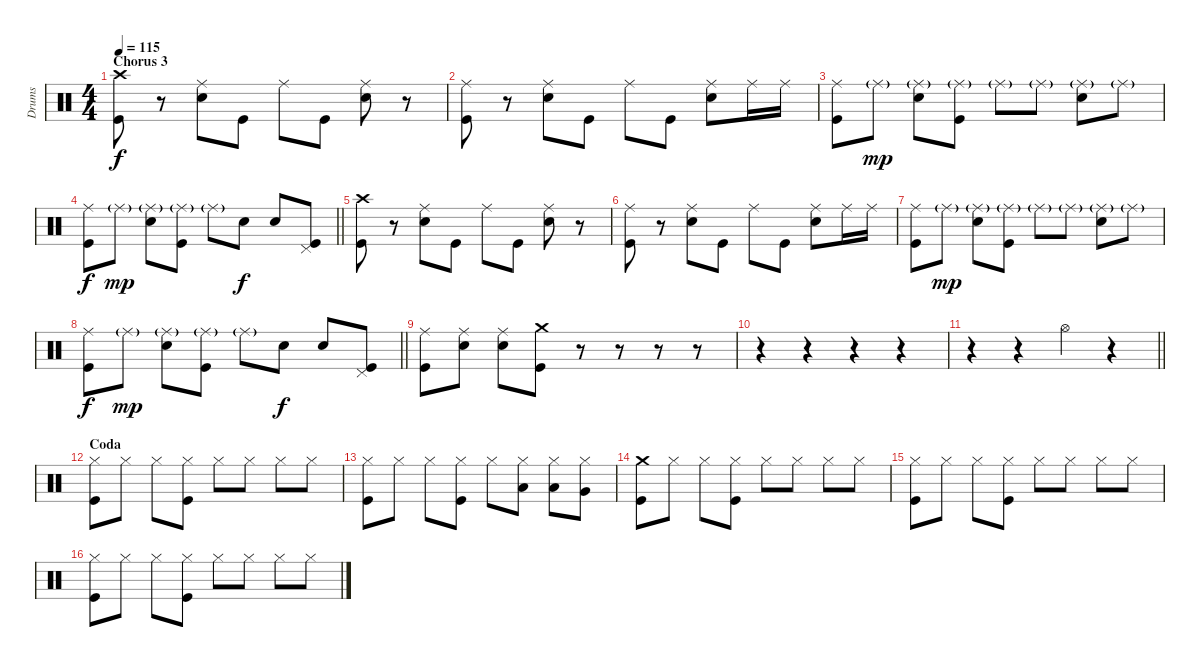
\track ("Drums" "Drums") {instrument percussion}
\staff {score}
\articulation defaults
\ts (4 4)
\section ("" "Chorus 3")
\tempo 115
\clef neutral
\ks c
("Crash high (hit)" "Kick (hit)").8{dy f} r.8 ("Ride (middle)" "Snare (hit) 2").8 "Kick (hit)".8 "Ride (middle)".8 "Kick (hit)".8 ("Ride (middle)" "Snare (hit) 2").8 r.8 |
("Ride (middle)" "Kick (hit)").8 r.8 ("Ride (middle)" "Snare (hit) 2").8 "Kick (hit)".8 "Ride (middle)".8 "Kick (hit)".8 ("Ride (middle)" "Snare (hit) 2").8 "Ride (middle)".16 "Ride (middle)".16 |
("Ride (middle)" "Kick (hit)").8 "Ride (middle)"{g}.8{dy mp} ("Ride (middle)"{g} "Snare (hit) 2").8 ("Ride (middle)"{g} "Kick (hit)").8 "Ride (middle)"{g}.8 "Ride (middle)"{g}.8 ("Ride (middle)"{g} "Snare (hit) 2").8 "Ride (middle)"{g}.8 |
\barLineRight lightlight
("Ride (middle)" "Kick (hit)").8{dy f} "Ride (middle)"{g}.8{dy mp} ("Ride (middle)"{g} "Snare (hit) 2").8 ("Ride (middle)"{g} "Kick (hit)").8 "Ride (middle)"{g}.8 "Snare (hit) 2".8{dy f} "Snare (hit) 2".8 ("Pedal Hi-Hat (hit)" "Kick (hit)").8 |
("Crash high (hit)" "Kick (hit)").8 r.8 ("Ride (middle)" "Snare (hit) 2").8 "Kick (hit)".8 "Ride (middle)".8 "Kick (hit)".8 ("Ride (middle)" "Snare (hit) 2").8 r.8 |
("Ride (middle)" "Kick (hit)").8 r.8 ("Ride (middle)" "Snare (hit) 2").8 "Kick (hit)".8 "Ride (middle)".8 "Kick (hit)".8 ("Ride (middle)" "Snare (hit) 2").8 "Ride (middle)".16 "Ride (middle)".16 |
("Ride (middle)" "Kick (hit)").8 "Ride (middle)"{g}.8{dy mp} ("Ride (middle)"{g} "Snare (hit) 2").8 ("Ride (middle)"{g} "Kick (hit)").8 "Ride (middle)"{g}.8 "Ride (middle)"{g}.8 ("Ride (middle)"{g} "Snare (hit) 2").8 "Ride (middle)"{g}.8 |
\barLineRight lightlight
("Ride (middle)" "Kick (hit)").8{dy f} "Ride (middle)"{g}.8{dy mp} ("Ride (middle)"{g} "Snare (hit) 2").8 ("Ride (middle)"{g} "Kick (hit)").8 "Ride (middle)"{g}.8 "Snare (hit) 2".8{dy f} "Snare (hit) 2".8 ("Pedal Hi-Hat (hit)" "Kick (hit)").8 |
("Ride (middle)" "Kick (hit)").8 ("Ride (middle)" "Snare (hit) 2").8 ("Ride (middle)" "Snare (hit) 2").8 ("Crash medium (hit)" "Kick (hit)").8 r.8 r.8 r.8 r.8 |
r.4 r.4 r.4 r.4 |
\barLineRight lightlight
r.4 r.4 "Hi-Hat (open)".4 r.4 |
\section ("" "Coda")
("Hi-Hat (closed)" "Kick (hit)").8 "Hi-Hat (closed)".8 "Hi-Hat (closed)".8 ("Hi-Hat (closed)" "Kick (hit)").8 "Hi-Hat (closed)".8 "Hi-Hat (closed)".8 "Hi-Hat (closed)".8 "Hi-Hat (closed)".8 |
("Hi-Hat (closed)" "Kick (hit)").8 "Hi-Hat (closed)".8 "Hi-Hat (closed)".8 ("Hi-Hat (closed)" "Kick (hit)").8 "Hi-Hat (closed)".8 ("Hi-Hat (closed)" "Low Tom (hit)").8 ("Hi-Hat (closed)" "Low Tom (hit)").8 ("Hi-Hat (closed)" "Very Low Tom (hit)").8 |
("Crash medium (hit)" "Kick (hit)").8 "Hi-Hat (closed)".8 "Hi-Hat (closed)".8 ("Hi-Hat (closed)" "Kick (hit)").8 "Hi-Hat (closed)".8 "Hi-Hat (closed)".8 "Hi-Hat (closed)".8 "Hi-Hat (closed)".8 |
("Hi-Hat (closed)" "Kick (hit)").8 "Hi-Hat (closed)".8 "Hi-Hat (closed)".8 ("Hi-Hat (closed)" "Kick (hit)").8 "Hi-Hat (closed)".8 "Hi-Hat (closed)".8 "Hi-Hat (closed)".8 "Hi-Hat (closed)".8 |
("Hi-Hat (closed)" "Kick (hit)").8 "Hi-Hat (closed)".8 "Hi-Hat (closed)".8 ("Hi-Hat (closed)" "Kick (hit)").8 "Hi-Hat (closed)".8 "Hi-Hat (closed)".8 "Hi-Hat (closed)".8 "Hi-Hat (closed)".8
